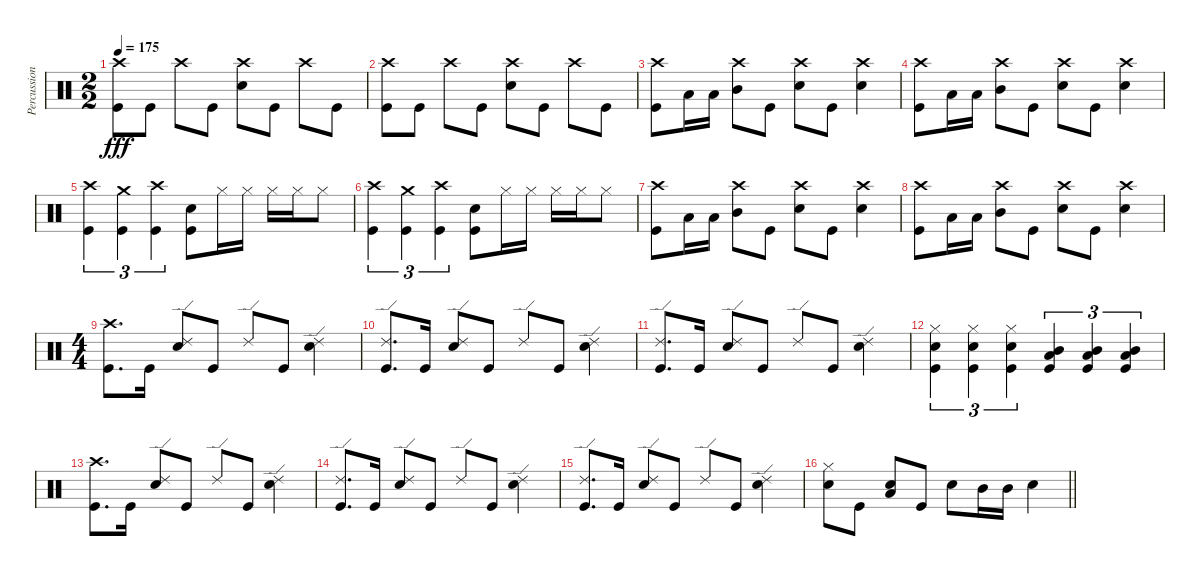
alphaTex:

\track ("Percussion" "Percussion") {instrument percussion}
\staff {score}
\articulation defaults
\ts (2 2)
\tempo 175
\clef neutral
\ks c
("Crash high (hit)" "Kick (hit)").8{dy fff} "Kick (hit)".8 "Crash high (hit)".8 "Kick (hit)".8 ("Crash high (hit)" "Snare (hit) 2").8 "Kick (hit)".8 "Crash high (hit)".8 "Kick (hit)".8 |
("Crash high (hit)" "Kick (hit)").8 "Kick (hit)".8 "Crash high (hit)".8 "Kick (hit)".8 ("Crash high (hit)" "Snare (hit) 2").8 "Kick (hit)".8 "Crash high (hit)".8 "Kick (hit)".8 |
("Kick (hit)" "Crash high (hit)").8 "Low Tom (hit)".16 "Low Tom (hit)".16 ("Mid Tom (hit)" "Crash high (hit)").8 "Kick (hit)".8 ("Snare (hit) 2" "Crash high (hit)").8 "Kick (hit)".8 ("Snare (hit) 2" "Crash high (hit)").4 |
("Kick (hit)" "Crash high (hit)").8 "Low Tom (hit)".16 "Low Tom (hit)".16 ("Mid Tom (hit)" "Crash high (hit)").8 "Kick (hit)".8 ("Snare (hit) 2" "Crash high (hit)").8 "Kick (hit)".8 ("Snare (hit) 2" "Crash high (hit)").4 |
("Kick (hit)" "Crash high (hit)").4{tu (3 2)} ("Kick (hit)" "Crash medium (hit)").4{tu (3 2)} ("Kick (hit)" "Crash high (hit)").4{tu (3 2)} ("Snare (hit) 2" "Kick (hit)").8 "Hi-Hat (closed)".16 "Hi-Hat (closed)".16 "Hi-Hat (closed)".16 "Hi-Hat (closed)".16 "Hi-Hat (closed)".8 |
("Kick (hit)" "Crash high (hit)").4{tu (3 2)} ("Kick (hit)" "Crash medium (hit)").4{tu (3 2)} ("Kick (hit)" "Crash high (hit)").4{tu (3 2)} ("Snare (hit) 2" "Kick (hit)").8 "Hi-Hat (closed)".16 "Hi-Hat (closed)".16 "Hi-Hat (closed)".16 "Hi-Hat (closed)".16 "Hi-Hat (closed)".8 |
("Kick (hit)" "Crash high (hit)").8 "Low Tom (hit)".16 "Low Tom (hit)".16 ("Mid Tom (hit)" "Crash high (hit)").8 "Kick (hit)".8 ("Snare (hit) 2" "Crash high (hit)").8 "Kick (hit)".8 ("Snare (hit) 2" "Crash high (hit)").4 |
("Kick (hit)" "Crash high (hit)").8 "Low Tom (hit)".16 "Low Tom (hit)".16 ("Mid Tom (hit)" "Crash high (hit)").8 "Kick (hit)".8 ("Snare (hit) 2" "Crash high (hit)").8 "Kick (hit)".8 ("Snare (hit) 2" "Crash high (hit)").4 |
\ts (4 4)
("Crash high (hit)" "Kick (hit)").8{d} "Kick (hit)".16 ("Ride (edge) 2" "Snare (hit) 2").8 "Kick (hit)".8 "Ride (edge) 2".8 "Kick (hit)".8 ("Ride (edge) 2" "Snare (hit) 2").4 |
("Ride (edge) 2" "Kick (hit)").8{d} "Kick (hit)".16 ("Ride (edge) 2" "Snare (hit) 2").8 "Kick (hit)".8 "Ride (edge) 2".8 "Kick (hit)".8 ("Ride (edge) 2" "Snare (hit) 2").4 |
("Ride (edge) 2" "Kick (hit)").8{d} "Kick (hit)".16 ("Ride (edge) 2" "Snare (hit) 2").8 "Kick (hit)".8 "Ride (edge) 2".8 "Kick (hit)".8 ("Ride (edge) 2" "Snare (hit) 2").4 |
("Hi-Hat (closed)" "Snare (hit) 2" "Kick (hit)").4{tu (3 2)} ("Hi-Hat (closed)" "Snare (hit) 2" "Kick (hit)").4{tu (3 2)} ("Hi-Hat (closed)" "Snare (hit) 2" "Kick (hit)").4{tu (3 2)} ("Mid Tom (hit)" "Low Tom (hit)" "Kick (hit)").4{tu (3 2)} ("Mid Tom (hit)" "Low Tom (hit)" "Kick (hit)").4{tu (3 2)} ("Mid Tom (hit)" "Low Tom (hit)" "Kick (hit)").4{tu (3 2)} |
("Crash high (hit)" "Kick (hit)").8{d} "Kick (hit)".16 ("Ride (edge) 2" "Snare (hit) 2").8 "Kick (hit)".8 "Ride (edge) 2".8 "Kick (hit)".8 ("Ride (edge) 2" "Snare (hit) 2").4 |
("Ride (edge) 2" "Kick (hit)").8{d} "Kick (hit)".16 ("Ride (edge) 2" "Snare (hit) 2").8 "Kick (hit)".8 "Ride (edge) 2".8 "Kick (hit)".8 ("Ride (edge) 2" "Snare (hit) 2").4 |
("Ride (edge) 2" "Kick (hit)").8{d} "Kick (hit)".16 ("Ride (edge) 2" "Snare (hit) 2").8 "Kick (hit)".8 "Ride (edge) 2".8 "Kick (hit)".8 ("Ride (edge) 2" "Snare (hit) 2").4 |
\barLineRight lightlight
("Snare (hit) 2" "Hi-Hat (closed)").8 "Kick (hit)".8 ("Snare (hit) 2" "Low Tom (hit)").8 "Kick (hit)".8 "Snare (hit) 2".8 "Mid Tom (hit)".16 "Mid Tom (hit)".16 "Snare (hit) 2".4
